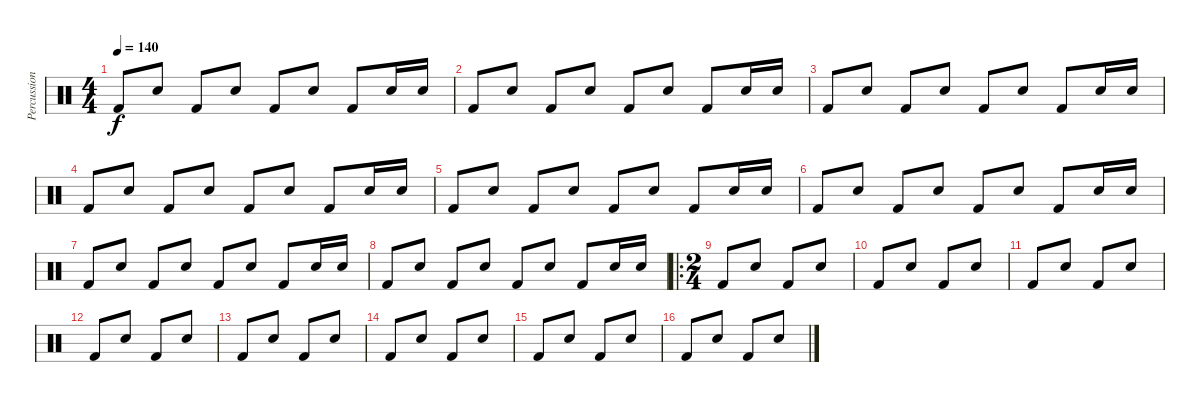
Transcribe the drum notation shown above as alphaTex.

\track ("Percussions" "Percussion") {instrument percussion}
\staff {score}
\articulation defaults
\ts (4 4)
\tempo 140
\clef neutral
\ks c "Kick (hit) 2".8{dy f} "Snare (hit) 2".8 "Kick (hit) 2".8 "Snare (hit) 2".8 "Kick (hit) 2".8 "Snare (hit) 2".8 "Kick (hit) 2".8 "Snare (hit) 2".16 "Snare (hit) 2".16
|
"Kick (hit) 2".8 "Snare (hit) 2".8 "Kick (hit) 2".8 "Snare (hit) 2".8 "Kick (hit) 2".8 "Snare (hit) 2".8 "Kick (hit) 2".8 "Snare (hit) 2".16 "Snare (hit) 2".16 |
"Kick (hit) 2".8 "Snare (hit) 2".8 "Kick (hit) 2".8 "Snare (hit) 2".8 "Kick (hit) 2".8 "Snare (hit) 2".8 "Kick (hit) 2".8 "Snare (hit) 2".16 "Snare (hit) 2".16 |
"Kick (hit) 2".8 "Snare (hit) 2".8 "Kick (hit) 2".8 "Snare (hit) 2".8 "Kick (hit) 2".8 "Snare (hit) 2".8 "Kick (hit) 2".8 "Snare (hit) 2".16 "Snare (hit) 2".16 |
"Kick (hit) 2".8 "Snare (hit) 2".8 "Kick (hit) 2".8 "Snare (hit) 2".8 "Kick (hit) 2".8 "Snare (hit) 2".8 "Kick (hit) 2".8 "Snare (hit) 2".16 "Snare (hit) 2".16 |
"Kick (hit) 2".8 "Snare (hit) 2".8 "Kick (hit) 2".8 "Snare (hit) 2".8 "Kick (hit) 2".8 "Snare (hit) 2".8 "Kick (hit) 2".8 "Snare (hit) 2".16 "Snare (hit) 2".16 |
"Kick (hit) 2".8 "Snare (hit) 2".8 "Kick (hit) 2".8 "Snare (hit) 2".8 "Kick (hit) 2".8 "Snare (hit) 2".8 "Kick (hit) 2".8 "Snare (hit) 2".16 "Snare (hit) 2".16 |
"Kick (hit) 2".8 "Snare (hit) 2".8 "Kick (hit) 2".8 "Snare (hit) 2".8 "Kick (hit) 2".8 "Snare (hit) 2".8 "Kick (hit) 2".8 "Snare (hit) 2".16 "Snare (hit) 2".16 |
\ro
\ts (2 4)
"Kick (hit) 2".8 "Snare (hit) 2".8 "Kick (hit) 2".8 "Snare (hit) 2".8 |
"Kick (hit) 2".8 "Snare (hit) 2".8 "Kick (hit) 2".8 "Snare (hit) 2".8 |
"Kick (hit) 2".8 "Snare (hit) 2".8 "Kick (hit) 2".8 "Snare (hit) 2".8 |
"Kick (hit) 2".8 "Snare (hit) 2".8 "Kick (hit) 2".8 "Snare (hit) 2".8 |
"Kick (hit) 2".8 "Snare (hit) 2".8 "Kick (hit) 2".8 "Snare (hit) 2".8 |
"Kick (hit) 2".8 "Snare (hit) 2".8 "Kick (hit) 2".8 "Snare (hit) 2".8 |
"Kick (hit) 2".8 "Snare (hit) 2".8 "Kick (hit) 2".8 "Snare (hit) 2".8 |
"Kick (hit) 2".8 "Snare (hit) 2".8 "Kick (hit) 2".8 "Snare (hit) 2".8
